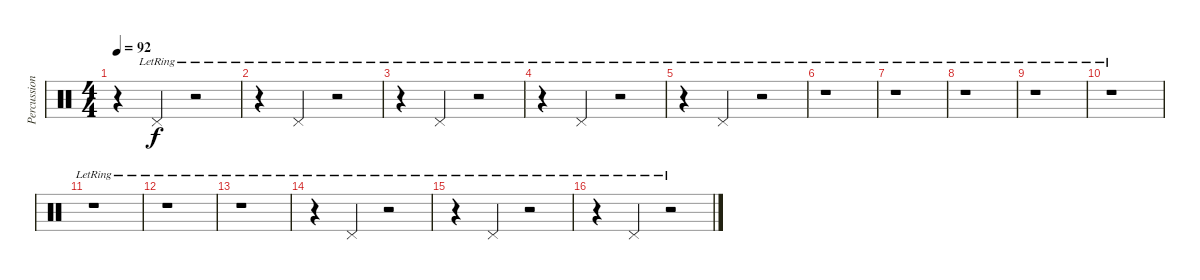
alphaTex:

\track ("Percussion" "Percussion") {instrument percussion}
\staff {score}
\articulation defaults
\ts (4 4)
\tempo 92
\clef neutral
\ks c
r.4{dy f} "Pedal Hi-Hat (hit)"{lr}.4 r.2 |
r.4 "Pedal Hi-Hat (hit)"{lr}.4 r.2 |
r.4 "Pedal Hi-Hat (hit)"{lr}.4 r.2 |
r.4 "Pedal Hi-Hat (hit)"{lr}.4 r.2 |
r.4 "Pedal Hi-Hat (hit)"{lr}.4 r.2 |
r.1 |
r.1 |
r.1 |
r.1 |
r.1 |
r.1 |
r.1 |
r.1 |
r.4 "Pedal Hi-Hat (hit)"{lr}.4 r.2 |
r.4 "Pedal Hi-Hat (hit)"{lr}.4 r.2 |
r.4 "Pedal Hi-Hat (hit)"{lr}.4 r.2
